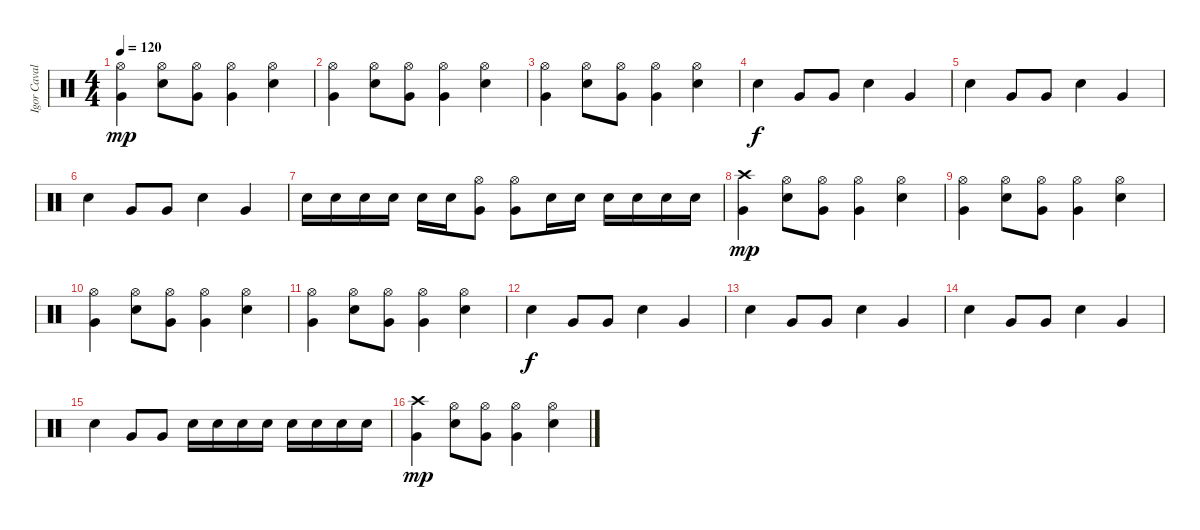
\track ("Igor Cavalera" "Igor Caval") {instrument percussion}
\staff {score}
\articulation defaults
\ts (4 4)
\tempo 120
\clef neutral
\ks c
("Hi-Hat (open)" "Very Low Tom (hit)").4{dy mp} ("Hi-Hat (open)" "Snare (hit) 2").8 ("Hi-Hat (open)" "Very Low Tom (hit)").8 ("Hi-Hat (open)" "Very Low Tom (hit)").4 ("Hi-Hat (open)" "Snare (hit) 2").4 |
("Hi-Hat (open)" "Very Low Tom (hit)").4 ("Hi-Hat (open)" "Snare (hit) 2").8 ("Hi-Hat (open)" "Very Low Tom (hit)").8 ("Hi-Hat (open)" "Very Low Tom (hit)").4 ("Hi-Hat (open)" "Snare (hit) 2").4 |
("Hi-Hat (open)" "Very Low Tom (hit)").4 ("Hi-Hat (open)" "Snare (hit) 2").8 ("Hi-Hat (open)" "Very Low Tom (hit)").8 ("Hi-Hat (open)" "Very Low Tom (hit)").4 ("Hi-Hat (open)" "Snare (hit) 2").4 |
"Snare (hit) 2".4{dy f} "Very Low Tom (hit)".8 "Very Low Tom (hit)".8 "Snare (hit) 2".4 "Very Low Tom (hit)".4 |
"Snare (hit) 2".4 "Very Low Tom (hit)".8 "Very Low Tom (hit)".8 "Snare (hit) 2".4 "Very Low Tom (hit)".4 |
"Snare (hit) 2".4 "Very Low Tom (hit)".8 "Very Low Tom (hit)".8 "Snare (hit) 2".4 "Very Low Tom (hit)".4 |
"Snare (hit) 2".16 "Snare (hit) 2".16 "Snare (hit) 2".16 "Snare (hit) 2".16 "Snare (hit) 2".16 "Snare (hit) 2".16 ("Hi-Hat (open)" "Very Low Tom (hit)").8 ("Hi-Hat (open)" "Very Low Tom (hit)").8 "Snare (hit) 2".16 "Snare (hit) 2".16 "Snare (hit) 2".16 "Snare (hit) 2".16 "Snare (hit) 2".16 "Snare (hit) 2".16 |
("Crash high (hit)" "Very Low Tom (hit)").4{dy mp} ("Hi-Hat (open)" "Snare (hit) 2").8 ("Hi-Hat (open)" "Very Low Tom (hit)").8 ("Hi-Hat (open)" "Very Low Tom (hit)").4 ("Hi-Hat (open)" "Snare (hit) 2").4 |
("Hi-Hat (open)" "Very Low Tom (hit)").4 ("Hi-Hat (open)" "Snare (hit) 2").8 ("Hi-Hat (open)" "Very Low Tom (hit)").8 ("Hi-Hat (open)" "Very Low Tom (hit)").4 ("Hi-Hat (open)" "Snare (hit) 2").4 |
("Hi-Hat (open)" "Very Low Tom (hit)").4 ("Hi-Hat (open)" "Snare (hit) 2").8 ("Hi-Hat (open)" "Very Low Tom (hit)").8 ("Hi-Hat (open)" "Very Low Tom (hit)").4 ("Hi-Hat (open)" "Snare (hit) 2").4 |
("Hi-Hat (open)" "Very Low Tom (hit)").4 ("Hi-Hat (open)" "Snare (hit) 2").8 ("Hi-Hat (open)" "Very Low Tom (hit)").8 ("Hi-Hat (open)" "Very Low Tom (hit)").4 ("Hi-Hat (open)" "Snare (hit) 2").4 |
"Snare (hit) 2".4{dy f} "Very Low Tom (hit)".8 "Very Low Tom (hit)".8 "Snare (hit) 2".4 "Very Low Tom (hit)".4 |
"Snare (hit) 2".4 "Very Low Tom (hit)".8 "Very Low Tom (hit)".8 "Snare (hit) 2".4 "Very Low Tom (hit)".4 |
"Snare (hit) 2".4 "Very Low Tom (hit)".8 "Very Low Tom (hit)".8 "Snare (hit) 2".4 "Very Low Tom (hit)".4 |
"Snare (hit) 2".4 "Very Low Tom (hit)".8 "Very Low Tom (hit)".8 "Snare (hit) 2".16 "Snare (hit) 2".16 "Snare (hit) 2".16 "Snare (hit) 2".16 "Snare (hit) 2".16 "Snare (hit) 2".16 "Snare (hit) 2".16 "Snare (hit) 2".16 |
("Crash high (hit)" "Very Low Tom (hit)").4{dy mp} ("Hi-Hat (open)" "Snare (hit) 2").8 ("Hi-Hat (open)" "Very Low Tom (hit)").8 ("Hi-Hat (open)" "Very Low Tom (hit)").4 ("Hi-Hat (open)" "Snare (hit) 2").4
